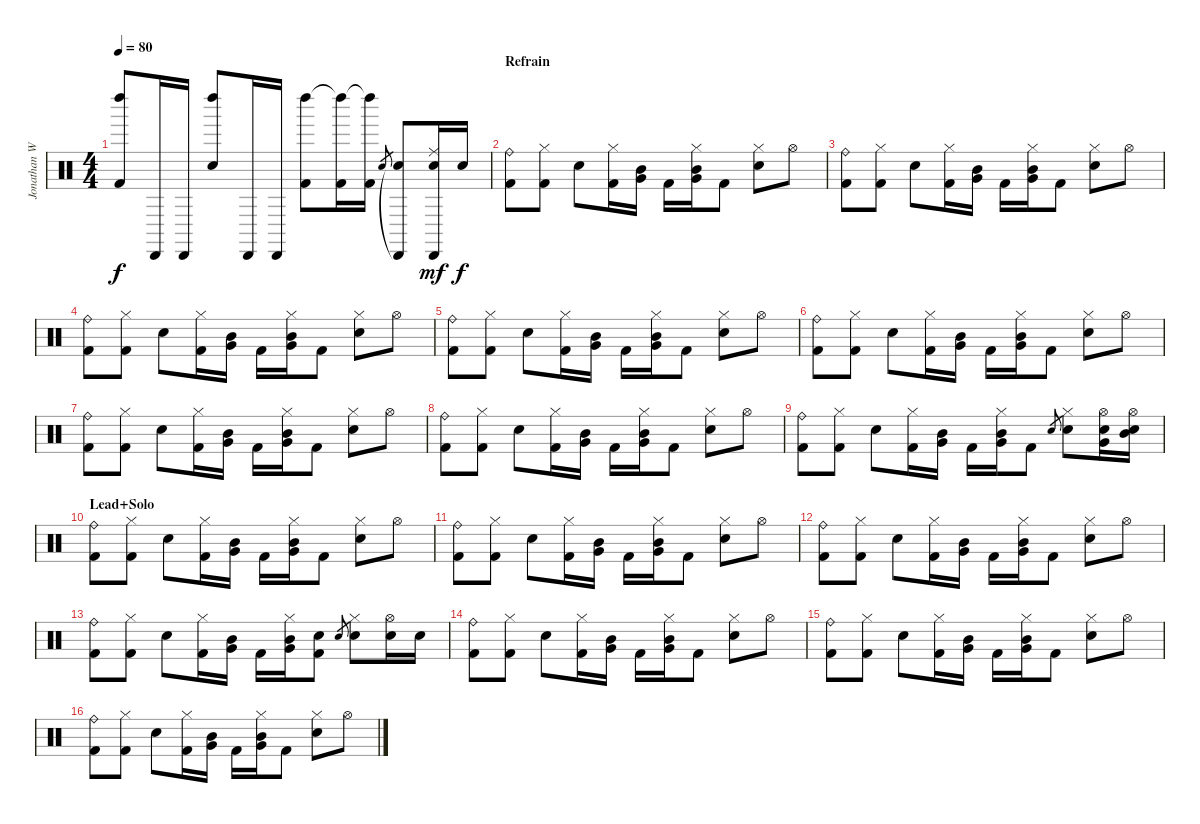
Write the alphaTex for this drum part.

\track ("Jonathan Wenzel" "Jonathan W") {instrument percussion}
\staff {score}
\articulation defaults
\ts (4 4)
\tempo 80
\clef neutral
\ks c
("Left Maraca (hit)" "Kick (hit) 2").8{dy f} "Cabasa (hit)".16 "Cabasa (hit)".16 ("Left Maraca (hit)" "Snare (hit) 2").8 "Cabasa (hit)".16 "Cabasa (hit)".16 ("Left Maraca (hit)" "Kick (hit) 2").8 ("Left Maraca (hit)"{t} "Kick (hit) 2").16 ("Left Maraca (hit)"{t} "Kick (hit) 2").16 "Snare (hit) 2".8{gr} ("Cabasa (hit)"{t} "Snare (hit) 2").8 ("Cabasa (hit)" "Ride (middle)" "Snare (hit) 2").16{dy mf} "Snare (hit) 2".16{dy f} |
\section ("" "Refrain")
("Ride (bell)" "Kick (hit) 2").8 ("Hi-Hat (closed)" "Kick (hit) 2").8 "Snare (hit) 2".8 ("Hi-Hat (closed)" "Kick (hit) 2").16 ("Mid Tom (hit)" "Very Low Tom (hit)").16 "Kick (hit) 2".16 ("Hi-Hat (closed)" "Mid Tom (hit)" "Very Low Tom (hit)").16 "Kick (hit) 2".8 ("Hi-Hat (closed)" "Snare (hit) 2").8 "Hi-Hat (open)".8 |
("Ride (bell)" "Kick (hit) 2").8 ("Hi-Hat (closed)" "Kick (hit) 2").8 "Snare (hit) 2".8 ("Hi-Hat (closed)" "Kick (hit) 2").16 ("Mid Tom (hit)" "Very Low Tom (hit)").16 "Kick (hit) 2".16 ("Hi-Hat (closed)" "Mid Tom (hit)" "Very Low Tom (hit)").16 "Kick (hit) 2".8 ("Hi-Hat (closed)" "Snare (hit) 2").8 "Hi-Hat (open)".8 |
("Ride (bell)" "Kick (hit) 2").8 ("Hi-Hat (closed)" "Kick (hit) 2").8 "Snare (hit) 2".8 ("Hi-Hat (closed)" "Kick (hit) 2").16 ("Mid Tom (hit)" "Very Low Tom (hit)").16 "Kick (hit) 2".16 ("Hi-Hat (closed)" "Mid Tom (hit)" "Very Low Tom (hit)").16 "Kick (hit) 2".8 ("Hi-Hat (closed)" "Snare (hit) 2").8 "Hi-Hat (open)".8 |
("Ride (bell)" "Kick (hit) 2").8 ("Hi-Hat (closed)" "Kick (hit) 2").8 "Snare (hit) 2".8 ("Hi-Hat (closed)" "Kick (hit) 2").16 ("Mid Tom (hit)" "Very Low Tom (hit)").16 "Kick (hit) 2".16 ("Hi-Hat (closed)" "Mid Tom (hit)" "Very Low Tom (hit)").16 "Kick (hit) 2".8 ("Hi-Hat (closed)" "Snare (hit) 2").8 "Hi-Hat (open)".8 |
("Ride (bell)" "Kick (hit) 2").8 ("Hi-Hat (closed)" "Kick (hit) 2").8 "Snare (hit) 2".8 ("Hi-Hat (closed)" "Kick (hit) 2").16 ("Mid Tom (hit)" "Very Low Tom (hit)").16 "Kick (hit) 2".16 ("Hi-Hat (closed)" "Mid Tom (hit)" "Very Low Tom (hit)").16 "Kick (hit) 2".8 ("Hi-Hat (closed)" "Snare (hit) 2").8 "Hi-Hat (open)".8 |
("Ride (bell)" "Kick (hit) 2").8 ("Hi-Hat (closed)" "Kick (hit) 2").8 "Snare (hit) 2".8 ("Hi-Hat (closed)" "Kick (hit) 2").16 ("Mid Tom (hit)" "Very Low Tom (hit)").16 "Kick (hit) 2".16 ("Hi-Hat (closed)" "Mid Tom (hit)" "Very Low Tom (hit)").16 "Kick (hit) 2".8 ("Hi-Hat (closed)" "Snare (hit) 2").8 "Hi-Hat (open)".8 |
("Ride (bell)" "Kick (hit) 2").8 ("Hi-Hat (closed)" "Kick (hit) 2").8 "Snare (hit) 2".8 ("Hi-Hat (closed)" "Kick (hit) 2").16 ("Mid Tom (hit)" "Very Low Tom (hit)").16 "Kick (hit) 2".16 ("Hi-Hat (closed)" "Mid Tom (hit)" "Very Low Tom (hit)").16 "Kick (hit) 2".8 ("Hi-Hat (closed)" "Snare (hit) 2").8 "Hi-Hat (open)".8 |
("Ride (bell)" "Kick (hit) 2").8 ("Hi-Hat (closed)" "Kick (hit) 2").8 "Snare (hit) 2".8 ("Hi-Hat (closed)" "Kick (hit) 2").16 ("Mid Tom (hit)" "Very Low Tom (hit)").16 "Kick (hit) 2".16 ("Hi-Hat (closed)" "Mid Tom (hit)" "Very Low Tom (hit)").16 "Kick (hit) 2".8 "Snare (hit) 2".8{gr} ("Hi-Hat (closed)" "Snare (hit) 2").8 ("Hi-Hat (open)" "Snare (hit) 2" "Very Low Tom (hit)").16 ("Hi-Hat (open)" "Snare (hit) 2" "Mid Tom (hit)").16 |
\section ("" "Lead+Solo")
("Ride (bell)" "Kick (hit) 2").8 ("Hi-Hat (closed)" "Kick (hit) 2").8 "Snare (hit) 2".8 ("Hi-Hat (closed)" "Kick (hit) 2").16 ("Mid Tom (hit)" "Very Low Tom (hit)").16 "Kick (hit) 2".16 ("Hi-Hat (closed)" "Mid Tom (hit)" "Very Low Tom (hit)").16 "Kick (hit) 2".8 ("Hi-Hat (closed)" "Snare (hit) 2").8 "Hi-Hat (open)".8 |
("Ride (bell)" "Kick (hit) 2").8 ("Hi-Hat (closed)" "Kick (hit) 2").8 "Snare (hit) 2".8 ("Hi-Hat (closed)" "Kick (hit) 2").16 ("Mid Tom (hit)" "Very Low Tom (hit)").16 "Kick (hit) 2".16 ("Hi-Hat (closed)" "Mid Tom (hit)" "Very Low Tom (hit)").16 "Kick (hit) 2".8 ("Hi-Hat (closed)" "Snare (hit) 2").8 "Hi-Hat (open)".8 |
("Ride (bell)" "Kick (hit) 2").8 ("Hi-Hat (closed)" "Kick (hit) 2").8 "Snare (hit) 2".8 ("Hi-Hat (closed)" "Kick (hit) 2").16 ("Mid Tom (hit)" "Very Low Tom (hit)").16 "Kick (hit) 2".16 ("Hi-Hat (closed)" "Mid Tom (hit)" "Very Low Tom (hit)").16 "Kick (hit) 2".8 ("Hi-Hat (closed)" "Snare (hit) 2").8 "Hi-Hat (open)".8 |
("Ride (bell)" "Kick (hit) 2").8 ("Hi-Hat (closed)" "Kick (hit) 2").8 "Snare (hit) 2".8 ("Hi-Hat (closed)" "Kick (hit) 2").16 ("Mid Tom (hit)" "Very Low Tom (hit)").16 "Kick (hit) 2".16 ("Hi-Hat (closed)" "Mid Tom (hit)" "Very Low Tom (hit)").16 ("Snare (hit) 2" "Kick (hit) 2").8 "Snare (hit) 2".8{gr} ("Hi-Hat (closed)" "Snare (hit) 2").8 ("Hi-Hat (open)" "Snare (hit) 2").16 "Snare (hit) 2".16 |
("Ride (bell)" "Kick (hit) 2").8 ("Hi-Hat (closed)" "Kick (hit) 2").8 "Snare (hit) 2".8 ("Hi-Hat (closed)" "Kick (hit) 2").16 ("Mid Tom (hit)" "Very Low Tom (hit)").16 "Kick (hit) 2".16 ("Hi-Hat (closed)" "Mid Tom (hit)" "Very Low Tom (hit)").16 "Kick (hit) 2".8 ("Hi-Hat (closed)" "Snare (hit) 2").8 "Hi-Hat (open)".8 |
("Ride (bell)" "Kick (hit) 2").8 ("Hi-Hat (closed)" "Kick (hit) 2").8 "Snare (hit) 2".8 ("Hi-Hat (closed)" "Kick (hit) 2").16 ("Mid Tom (hit)" "Very Low Tom (hit)").16 "Kick (hit) 2".16 ("Hi-Hat (closed)" "Mid Tom (hit)" "Very Low Tom (hit)").16 "Kick (hit) 2".8 ("Hi-Hat (closed)" "Snare (hit) 2").8 "Hi-Hat (open)".8 |
("Ride (bell)" "Kick (hit) 2").8 ("Hi-Hat (closed)" "Kick (hit) 2").8 "Snare (hit) 2".8 ("Hi-Hat (closed)" "Kick (hit) 2").16 ("Mid Tom (hit)" "Very Low Tom (hit)").16 "Kick (hit) 2".16 ("Hi-Hat (closed)" "Mid Tom (hit)" "Very Low Tom (hit)").16 "Kick (hit) 2".8 ("Hi-Hat (closed)" "Snare (hit) 2").8 "Hi-Hat (open)".8
